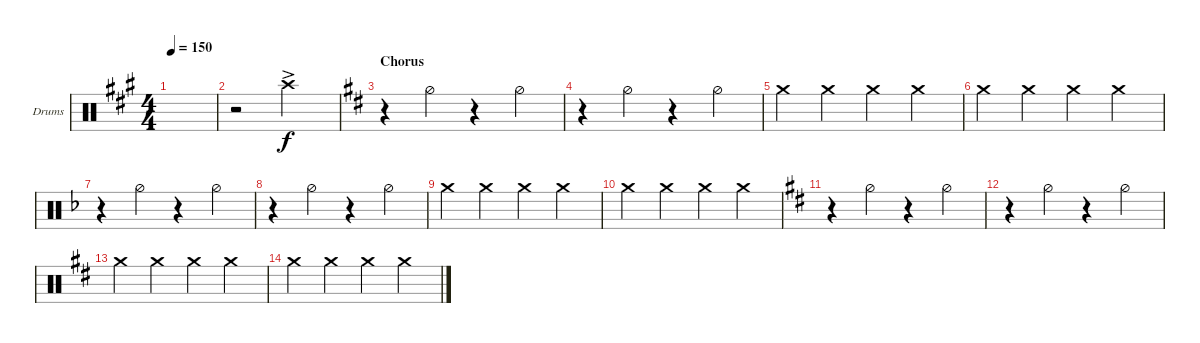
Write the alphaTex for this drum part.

\defaultSystemsLayout 4
\bracketExtendMode groupsimilarinstruments
\firstSystemTrackNameOrientation horizontal
\otherSystemsTrackNameOrientation horizontal
\track ("Drumkit" "Drums") {instrument percussion}
\staff {score}
\articulation defaults
\ts (4 4)
\tempo 150
\clef neutral
\ks a
|
r.2 "Crash high (hit)"{ac}.2 |
\section ("" "Chorus")
\ks d
r.4 "Hi-Hat (half)".4 r.4 "Hi-Hat (half)".4 |
r.4 "Hi-Hat (half)".4 r.4 "Hi-Hat (half)".4 |
"Crash medium (hit)".4 "Crash medium (hit)".4 "Crash medium (hit)".4 "Crash medium (hit)".4 |
"Crash medium (hit)".4 "Crash medium (hit)".4 "Crash medium (hit)".4 "Crash medium (hit)".4 |
\ks f
r.4 "Hi-Hat (half)".4 r.4 "Hi-Hat (half)".4 |
r.4 "Hi-Hat (half)".4 r.4 "Hi-Hat (half)".4 |
"Crash medium (hit)".4 "Crash medium (hit)".4 "Crash medium (hit)".4 "Crash medium (hit)".4 |
"Crash medium (hit)".4 "Crash medium (hit)".4 "Crash medium (hit)".4 "Crash medium (hit)".4 |
\ks d
r.4 "Hi-Hat (half)".4 r.4 "Hi-Hat (half)".4 |
r.4 "Hi-Hat (half)".4 r.4 "Hi-Hat (half)".4 |
"Crash medium (hit)".4 "Crash medium (hit)".4 "Crash medium (hit)".4 "Crash medium (hit)".4 |
"Crash medium (hit)".4 "Crash medium (hit)".4 "Crash medium (hit)".4 "Crash medium (hit)".4
